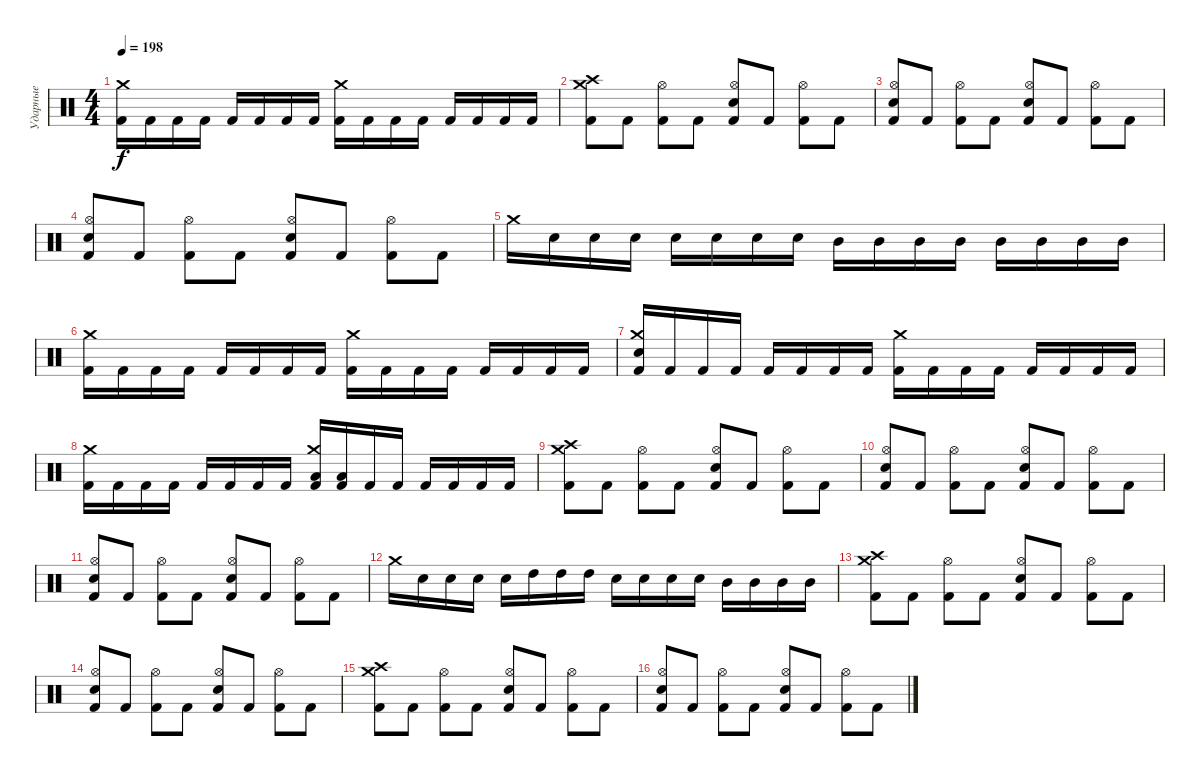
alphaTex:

\track ("Ударные" "Ударные") {instrument percussion}
\staff {score}
\articulation defaults
\ts (4 4)
\tempo 198
\clef neutral
\ks c
("Kick (hit) 2" "Crash medium (hit)").16{dy f} "Kick (hit) 2".16 "Kick (hit) 2".16 "Kick (hit) 2".16 "Kick (hit) 2".16 "Kick (hit) 2".16 "Kick (hit) 2".16 "Kick (hit) 2".16 ("Kick (hit) 2" "Crash medium (hit)").16 "Kick (hit) 2".16 "Kick (hit) 2".16 "Kick (hit) 2".16 "Kick (hit) 2".16 "Kick (hit) 2".16 "Kick (hit) 2".16 "Kick (hit) 2".16 |
("Kick (hit) 2" "Crash medium (hit)" "Crash high (hit)").8 "Kick (hit) 2".8 ("Kick (hit) 2" "Hi-Hat (open)").8 "Kick (hit) 2".8 ("Kick (hit) 2" "Hi-Hat (open)" "Electric Snare (hit)").8 "Kick (hit) 2".8 ("Kick (hit) 2" "Hi-Hat (open)").8 "Kick (hit) 2".8 |
("Kick (hit) 2" "Hi-Hat (open)" "Electric Snare (hit)").8 "Kick (hit) 2".8 ("Kick (hit) 2" "Hi-Hat (open)").8 "Kick (hit) 2".8 ("Kick (hit) 2" "Hi-Hat (open)" "Electric Snare (hit)").8 "Kick (hit) 2".8 ("Kick (hit) 2" "Hi-Hat (open)").8 "Kick (hit) 2".8 |
("Kick (hit) 2" "Hi-Hat (open)" "Electric Snare (hit)").8 "Kick (hit) 2".8 ("Kick (hit) 2" "Hi-Hat (open)").8 "Kick (hit) 2".8 ("Kick (hit) 2" "Hi-Hat (open)" "Electric Snare (hit)").8 "Kick (hit) 2".8 ("Kick (hit) 2" "Hi-Hat (open)").8 "Kick (hit) 2".8 |
"Crash medium (hit)".16 "Electric Snare (hit)".16 "Electric Snare (hit)".16 "Electric Snare (hit)".16 "Electric Snare (hit)".16 "Electric Snare (hit)".16 "Electric Snare (hit)".16 "Electric Snare (hit)".16 "Mid Tom (hit)".16 "Mid Tom (hit)".16 "Mid Tom (hit)".16 "Mid Tom (hit)".16 "Mid Tom (hit)".16 "Mid Tom (hit)".16 "Mid Tom (hit)".16 "Mid Tom (hit)".16 |
("Kick (hit) 2" "Crash medium (hit)").16 "Kick (hit) 2".16 "Kick (hit) 2".16 "Kick (hit) 2".16 "Kick (hit) 2".16 "Kick (hit) 2".16 "Kick (hit) 2".16 "Kick (hit) 2".16 ("Kick (hit) 2" "Crash medium (hit)").16 "Kick (hit) 2".16 "Kick (hit) 2".16 "Kick (hit) 2".16 "Kick (hit) 2".16 "Kick (hit) 2".16 "Kick (hit) 2".16 "Kick (hit) 2".16 |
("Kick (hit) 2" "Crash medium (hit)" "Electric Snare (hit)").16 "Kick (hit) 2".16 "Kick (hit) 2".16 "Kick (hit) 2".16 "Kick (hit) 2".16 "Kick (hit) 2".16 "Kick (hit) 2".16 "Kick (hit) 2".16 ("Kick (hit) 2" "Crash medium (hit)").16 "Kick (hit) 2".16 "Kick (hit) 2".16 "Kick (hit) 2".16 "Kick (hit) 2".16 "Kick (hit) 2".16 "Kick (hit) 2".16 "Kick (hit) 2".16 |
("Kick (hit) 2" "Crash medium (hit)").16 "Kick (hit) 2".16 "Kick (hit) 2".16 "Kick (hit) 2".16 "Kick (hit) 2".16 "Kick (hit) 2".16 "Kick (hit) 2".16 "Kick (hit) 2".16 ("Kick (hit) 2" "Crash medium (hit)" "Low Tom (hit)").16 ("Kick (hit) 2" "Low Tom (hit)").16 "Kick (hit) 2".16 "Kick (hit) 2".16 "Kick (hit) 2".16 "Kick (hit) 2".16 "Kick (hit) 2".16 "Kick (hit) 2".16 |
("Kick (hit) 2" "Crash medium (hit)" "Crash high (hit)").8 "Kick (hit) 2".8 ("Kick (hit) 2" "Hi-Hat (open)").8 "Kick (hit) 2".8 ("Kick (hit) 2" "Hi-Hat (open)" "Electric Snare (hit)").8 "Kick (hit) 2".8 ("Kick (hit) 2" "Hi-Hat (open)").8 "Kick (hit) 2".8 |
("Kick (hit) 2" "Hi-Hat (open)" "Electric Snare (hit)").8 "Kick (hit) 2".8 ("Kick (hit) 2" "Hi-Hat (open)").8 "Kick (hit) 2".8 ("Kick (hit) 2" "Hi-Hat (open)" "Electric Snare (hit)").8 "Kick (hit) 2".8 ("Kick (hit) 2" "Hi-Hat (open)").8 "Kick (hit) 2".8 |
("Kick (hit) 2" "Hi-Hat (open)" "Electric Snare (hit)").8 "Kick (hit) 2".8 ("Kick (hit) 2" "Hi-Hat (open)").8 "Kick (hit) 2".8 ("Kick (hit) 2" "Hi-Hat (open)" "Electric Snare (hit)").8 "Kick (hit) 2".8 ("Kick (hit) 2" "Hi-Hat (open)").8 "Kick (hit) 2".8 |
"Crash medium (hit)".16 "Electric Snare (hit)".16 "Electric Snare (hit)".16 "Electric Snare (hit)".16 "Electric Snare (hit)".16 "High Tom (hit)".16 "High Tom (hit)".16 "High Tom (hit)".16 "Electric Snare (hit)".16 "Electric Snare (hit)".16 "Electric Snare (hit)".16 "Electric Snare (hit)".16 "Mid Tom (hit)".16 "Mid Tom (hit)".16 "Mid Tom (hit)".16 "Mid Tom (hit)".16 |
("Kick (hit) 2" "Crash medium (hit)" "Crash high (hit)").8 "Kick (hit) 2".8 ("Kick (hit) 2" "Hi-Hat (open)").8 "Kick (hit) 2".8 ("Kick (hit) 2" "Hi-Hat (open)" "Electric Snare (hit)").8 "Kick (hit) 2".8 ("Kick (hit) 2" "Hi-Hat (open)").8 "Kick (hit) 2".8 |
("Kick (hit) 2" "Hi-Hat (open)" "Electric Snare (hit)").8 "Kick (hit) 2".8 ("Kick (hit) 2" "Hi-Hat (open)").8 "Kick (hit) 2".8 ("Kick (hit) 2" "Hi-Hat (open)" "Electric Snare (hit)").8 "Kick (hit) 2".8 ("Kick (hit) 2" "Hi-Hat (open)").8 "Kick (hit) 2".8 |
("Kick (hit) 2" "Crash medium (hit)" "Crash high (hit)").8 "Kick (hit) 2".8 ("Kick (hit) 2" "Hi-Hat (open)").8 "Kick (hit) 2".8 ("Kick (hit) 2" "Hi-Hat (open)" "Electric Snare (hit)").8 "Kick (hit) 2".8 ("Kick (hit) 2" "Hi-Hat (open)").8 "Kick (hit) 2".8 |
("Kick (hit) 2" "Hi-Hat (open)" "Electric Snare (hit)").8 "Kick (hit) 2".8 ("Kick (hit) 2" "Hi-Hat (open)").8 "Kick (hit) 2".8 ("Kick (hit) 2" "Hi-Hat (open)" "Electric Snare (hit)").8 "Kick (hit) 2".8 ("Kick (hit) 2" "Hi-Hat (open)").8 "Kick (hit) 2".8
